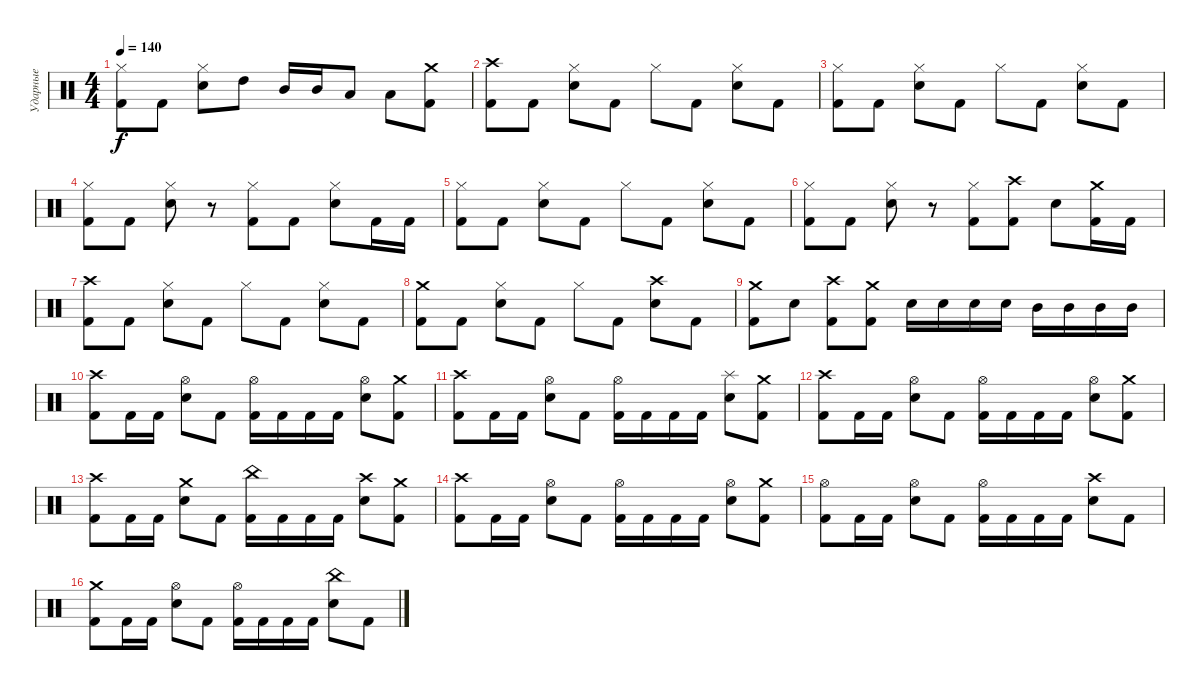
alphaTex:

\track ("Ударные" "Ударные") {instrument percussion}
\staff {score}
\articulation defaults
\ts (4 4)
\tempo 140
\clef neutral
\ks c
("Kick (hit) 2" "Hi-Hat (closed)").8{dy f} "Kick (hit) 2".8 ("Electric Snare (hit)" "Hi-Hat (closed)").8 "High Tom (hit)".8 "Mid Tom (hit)".16 "Mid Tom (hit)".16 "Low Tom (hit)".8 "Low Tom (hit)".8 ("Crash medium (hit)" "Kick (hit) 2").8 |
("Kick (hit) 2" "Crash high (hit)").8 "Kick (hit) 2".8 ("Electric Snare (hit)" "Hi-Hat (closed)").8 "Kick (hit) 2".8 "Hi-Hat (closed)".8 "Kick (hit) 2".8 ("Electric Snare (hit)" "Hi-Hat (closed)").8 "Kick (hit) 2".8 |
("Kick (hit) 2" "Hi-Hat (closed)").8 "Kick (hit) 2".8 ("Electric Snare (hit)" "Hi-Hat (closed)").8 "Kick (hit) 2".8 "Hi-Hat (closed)".8 "Kick (hit) 2".8 ("Electric Snare (hit)" "Hi-Hat (closed)").8 "Kick (hit) 2".8 |
("Kick (hit) 2" "Hi-Hat (closed)").8 "Kick (hit) 2".8 ("Electric Snare (hit)" "Hi-Hat (closed)").8 r.8 ("Kick (hit) 2" "Hi-Hat (closed)").8 "Kick (hit) 2".8 ("Electric Snare (hit)" "Hi-Hat (closed)").8 "Kick (hit) 2".16 "Kick (hit) 2".16 |
("Kick (hit) 2" "Hi-Hat (closed)").8 "Kick (hit) 2".8 ("Electric Snare (hit)" "Hi-Hat (closed)").8 "Kick (hit) 2".8 "Hi-Hat (closed)".8 "Kick (hit) 2".8 ("Electric Snare (hit)" "Hi-Hat (closed)").8 "Kick (hit) 2".8 |
("Kick (hit) 2" "Hi-Hat (closed)").8 "Kick (hit) 2".8 ("Electric Snare (hit)" "Hi-Hat (closed)").8 r.8 ("Kick (hit) 2" "Hi-Hat (closed)").8 ("Kick (hit) 2" "Crash high (hit)").8 "Electric Snare (hit)".8 ("Kick (hit) 2" "Crash medium (hit)").16 "Kick (hit) 2".16 |
("Kick (hit) 2" "Crash high (hit)").8 "Kick (hit) 2".8 ("Electric Snare (hit)" "Hi-Hat (closed)").8 "Kick (hit) 2".8 "Hi-Hat (closed)".8 "Kick (hit) 2".8 ("Electric Snare (hit)" "Hi-Hat (closed)").8 "Kick (hit) 2".8 |
("Kick (hit) 2" "Crash medium (hit)").8 "Kick (hit) 2".8 ("Electric Snare (hit)" "Hi-Hat (closed)").8 "Kick (hit) 2".8 "Hi-Hat (closed)".8 "Kick (hit) 2".8 ("Electric Snare (hit)" "Crash high (hit)").8 "Kick (hit) 2".8 |
("Kick (hit) 2" "Crash medium (hit)").8 "Electric Snare (hit)".8 ("Kick (hit) 2" "Crash high (hit)").8 ("Kick (hit) 2" "Crash medium (hit)").8 "Electric Snare (hit)".16 "Electric Snare (hit)".16 "Electric Snare (hit)".16 "Electric Snare (hit)".16 "Mid Tom (hit)".16 "Mid Tom (hit)".16 "Mid Tom (hit)".16 "Mid Tom (hit)".16 |
("Kick (hit) 2" "Crash high (hit)").8 "Kick (hit) 2".16 "Kick (hit) 2".16 ("Hi-Hat (open)" "Electric Snare (hit)").8 "Kick (hit) 2".8 ("Kick (hit) 2" "Hi-Hat (open)").16 "Kick (hit) 2".16 "Kick (hit) 2".16 "Kick (hit) 2".16 ("Hi-Hat (open)" "Electric Snare (hit)").8 ("Kick (hit) 2" "Crash medium (hit)").8 |
("Kick (hit) 2" "Crash high (hit)").8 "Kick (hit) 2".16 "Kick (hit) 2".16 ("Hi-Hat (open)" "Electric Snare (hit)").8 "Kick (hit) 2".8 ("Kick (hit) 2" "Hi-Hat (open)").16 "Kick (hit) 2".16 "Kick (hit) 2".16 "Kick (hit) 2".16 ("Splash (hit)" "Electric Snare (hit)").8 ("Kick (hit) 2" "Crash medium (hit)").8 |
("Kick (hit) 2" "Crash high (hit)").8 "Kick (hit) 2".16 "Kick (hit) 2".16 ("Hi-Hat (open)" "Electric Snare (hit)").8 "Kick (hit) 2".8 ("Kick (hit) 2" "Hi-Hat (open)").16 "Kick (hit) 2".16 "Kick (hit) 2".16 "Kick (hit) 2".16 ("Hi-Hat (open)" "Electric Snare (hit)").8 ("Kick (hit) 2" "Crash medium (hit)").8 |
("Kick (hit) 2" "Crash high (hit)").8 "Kick (hit) 2".16 "Kick (hit) 2".16 ("Crash medium (hit)" "Electric Snare (hit)").8 "Kick (hit) 2".8 ("Kick (hit) 2" "China (hit)").16 "Kick (hit) 2".16 "Kick (hit) 2".16 "Kick (hit) 2".16 ("Electric Snare (hit)" "Crash high (hit)").8 ("Kick (hit) 2" "Crash medium (hit)").8 |
("Kick (hit) 2" "Crash high (hit)").8 "Kick (hit) 2".16 "Kick (hit) 2".16 ("Hi-Hat (open)" "Electric Snare (hit)").8 "Kick (hit) 2".8 ("Kick (hit) 2" "Hi-Hat (open)").16 "Kick (hit) 2".16 "Kick (hit) 2".16 "Kick (hit) 2".16 ("Hi-Hat (open)" "Electric Snare (hit)").8 ("Kick (hit) 2" "Crash medium (hit)").8 |
("Kick (hit) 2" "Hi-Hat (open)").8 "Kick (hit) 2".16 "Kick (hit) 2".16 ("Hi-Hat (open)" "Electric Snare (hit)").8 "Kick (hit) 2".8 ("Kick (hit) 2" "Hi-Hat (open)").16 "Kick (hit) 2".16 "Kick (hit) 2".16 "Kick (hit) 2".16 ("Crash high (hit)" "Electric Snare (hit)").8 "Kick (hit) 2".8 |
("Kick (hit) 2" "Crash medium (hit)").8 "Kick (hit) 2".16 "Kick (hit) 2".16 ("Hi-Hat (open)" "Electric Snare (hit)").8 "Kick (hit) 2".8 ("Kick (hit) 2" "Hi-Hat (open)").16 "Kick (hit) 2".16 "Kick (hit) 2".16 "Kick (hit) 2".16 ("China (hit)" "Electric Snare (hit)").8 "Kick (hit) 2".8
